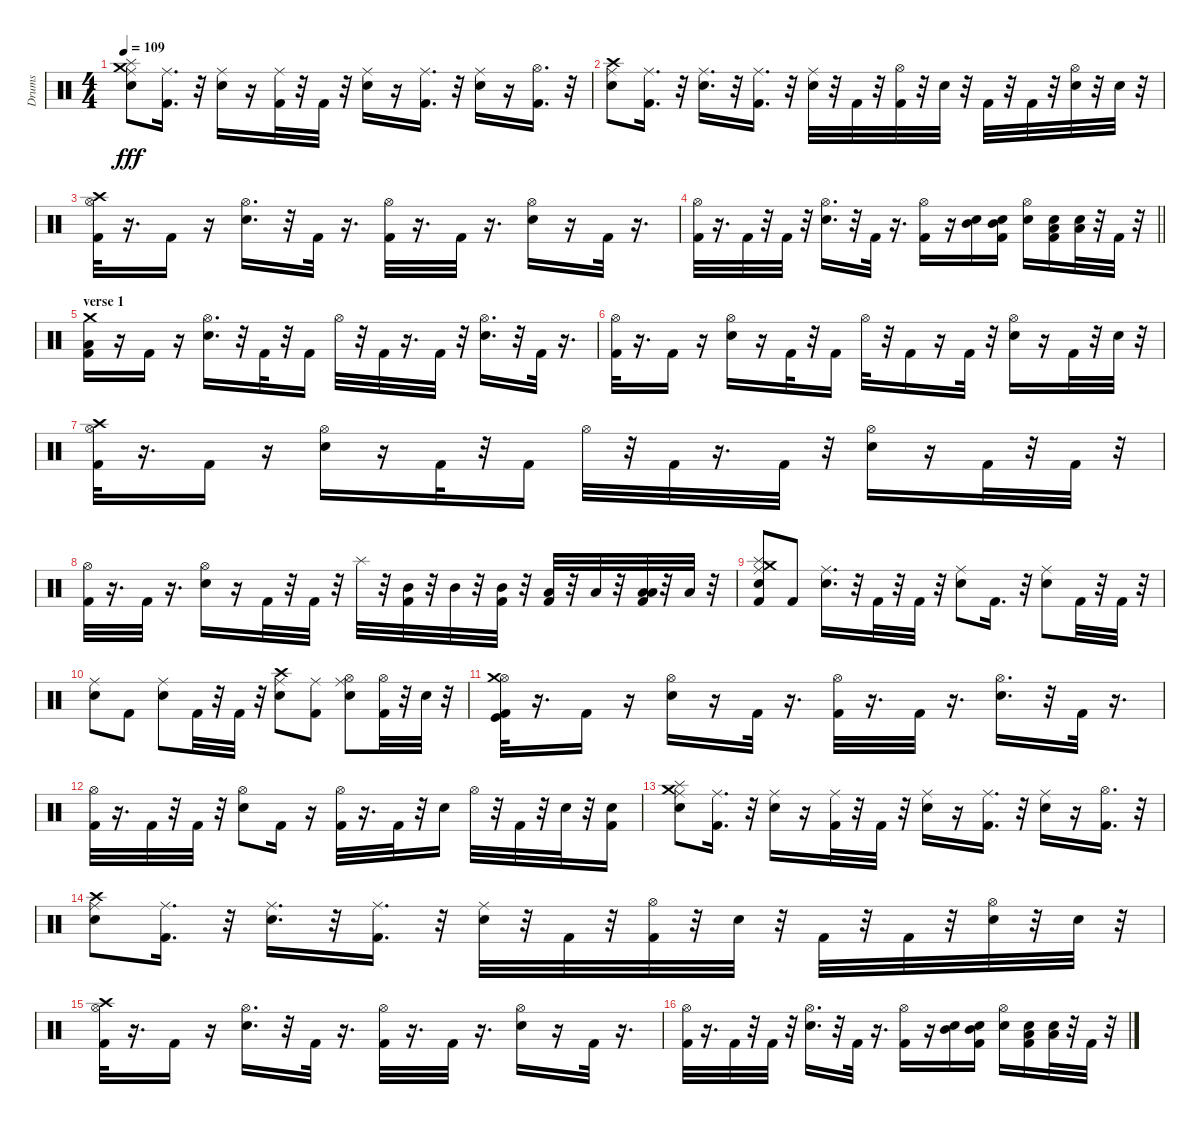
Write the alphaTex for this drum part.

\track ("Drums" "Drums") {instrument percussion}
\staff {score}
\articulation defaults
\ts (4 4)
\tempo 109
\clef neutral
\ks c
("Snare (hit) 2" "Ride (middle)" "Splash (hit)" "Crash medium (hit)").8{dy fff} ("Kick (hit) 2" "Ride (middle)").16{d} r.32 ("Snare (hit) 2" "Ride (middle)").16 r.16 ("Kick (hit) 2" "Ride (middle)").32 r.32 "Kick (hit) 2".32 r.32 ("Snare (hit) 2" "Ride (middle)").16 r.16 ("Kick (hit) 2" "Ride (middle)").16{d} r.32 ("Snare (hit) 2" "Ride (middle)").16 r.16 ("Kick (hit) 2" "Hi-Hat (open)").16{d} r.32 |
("Snare (hit) 2" "Crash high (hit)" "Ride (middle)").8 ("Kick (hit) 2" "Ride (middle)").16{d} r.32 ("Snare (hit) 2" "Ride (middle)").16{d} r.32 ("Kick (hit) 2" "Ride (middle)").16{d} r.32 ("Snare (hit) 2" "Ride (middle)").32 r.32 "Kick (hit) 2".32 r.32 ("Kick (hit) 2" "Hi-Hat (open)").32 r.32 "Snare (hit) 2".32 r.32 "Kick (hit) 2".32 r.32 "Kick (hit) 2".32 r.32 ("Snare (hit) 2" "Hi-Hat (open)").32 r.32 "Snare (hit) 2".32 r.32 |
("Kick (hit) 2" "Hi-Hat (open)" "Crash high (hit)").32 r.16{d} "Kick (hit) 2".16 r.16 ("Snare (hit) 2" "Hi-Hat (open)").16{d} r.32 "Kick (hit) 2".32 r.16{d} ("Kick (hit) 2" "Hi-Hat (open)").32 r.16{d} "Kick (hit) 2".32 r.16{d} ("Snare (hit) 2" "Hi-Hat (open)").16 r.16 "Kick (hit) 2".32 r.16{d} |
\barLineRight lightlight
("Kick (hit) 2" "Hi-Hat (open)").32 r.16{d} "Kick (hit) 2".32 r.32 "Kick (hit) 2".32 r.32 ("Snare (hit) 2" "Hi-Hat (open)").16{d} r.32 "Kick (hit) 2".32 r.16{d} ("Kick (hit) 2" "Hi-Hat (open)").16 r.16 ("Snare (hit) 2" "Mid Tom (hit)").16 ("Kick (hit) 2" "Snare (hit) 2" "Mid Tom (hit)").16 ("Snare (hit) 2" "Hi-Hat (open)").16 ("Kick (hit) 2" "Snare (hit) 2" "Low Tom (hit)").16 ("Snare (hit) 2" "Low Floor Tom (hit)").32 r.32 "Kick (hit) 2".32 r.32 |
\section ("" "verse 1")
("Kick (hit) 2" "Low Floor Tom (hit)" "Crash medium (hit)").16 r.16 "Kick (hit) 2".16 r.16 ("Snare (hit) 2" "Hi-Hat (open)").16{d} r.32 "Kick (hit) 2".32 r.32 "Kick (hit) 2".16 "Hi-Hat (open)".32 r.32 "Kick (hit) 2".32 r.16{d} "Kick (hit) 2".32 r.32 ("Snare (hit) 2" "Hi-Hat (open)").16{d} r.32 "Kick (hit) 2".32 r.16{d} |
("Kick (hit) 2" "Hi-Hat (open)").32 r.16{d} "Kick (hit) 2".16 r.16 ("Snare (hit) 2" "Hi-Hat (open)").16 r.16 "Kick (hit) 2".32 r.32 "Kick (hit) 2".16 "Hi-Hat (open)".32 r.32 "Kick (hit) 2".16 r.16 "Kick (hit) 2".32 r.32 ("Snare (hit) 2" "Hi-Hat (open)").16 r.16 "Kick (hit) 2".32 r.32 "Snare (hit) 2".32 r.32 |
("Kick (hit) 2" "Hi-Hat (open)" "Crash high (hit)").32 r.16{d} "Kick (hit) 2".16 r.16 ("Snare (hit) 2" "Hi-Hat (open)").16 r.16 "Kick (hit) 2".32 r.32 "Kick (hit) 2".16 "Hi-Hat (open)".32 r.32 "Kick (hit) 2".32 r.16{d} "Kick (hit) 2".32 r.32 ("Snare (hit) 2" "Hi-Hat (open)").16 r.16 "Kick (hit) 2".32 r.32 "Kick (hit) 2".32 r.32 |
("Kick (hit) 2" "Hi-Hat (open)").32 r.16{d} "Kick (hit) 2".32 r.16{d} ("Snare (hit) 2" "Hi-Hat (open)").16 r.16 "Kick (hit) 2".32 r.32 "Kick (hit) 2".32 r.32 "Splash (hit)".32 r.32 ("Kick (hit) 2" "Mid Tom (hit)").32 r.32 "Mid Tom (hit)".32 r.32 ("Kick (hit) 2" "Mid Tom (hit)").32 r.32 ("Kick (hit) 2" "Low Tom (hit)").32 r.32 "Low Tom (hit)".32 r.32 ("Kick (hit) 2" "Low Floor Tom (hit)" "Low Floor Tom (hit)").32 r.32 "Low Floor Tom (hit)".32 r.32 |
("Kick (hit) 2" "Snare (hit) 2" "Ride (middle)" "Splash (hit)" "Crash medium (hit)").8 "Kick (hit) 2".8 ("Snare (hit) 2" "Ride (middle)").16{d} r.32 "Kick (hit) 2".32 r.32 "Kick (hit) 2".32 r.32 ("Snare (hit) 2" "Ride (middle)").8 "Kick (hit) 2".16{d} r.32 ("Snare (hit) 2" "Ride (middle)").8 "Kick (hit) 2".32 r.32 "Kick (hit) 2".32 r.32 |
("Snare (hit) 2" "Ride (middle)").8 "Kick (hit) 2".8 ("Snare (hit) 2" "Ride (middle)").8 "Kick (hit) 2".32 r.32 "Kick (hit) 2".32 r.32 ("Snare (hit) 2" "Crash high (hit)" "Ride (middle)").8 ("Kick (hit) 2" "Ride (middle)").8 ("Snare (hit) 2" "Hi-Hat (open)" "Ride (middle)").8 ("Kick (hit) 2" "Hi-Hat (open)").32 r.32 "Snare (hit) 2".32 r.32 |
("Kick (hit)" "Kick (hit) 2" "Hi-Hat (open)" "Crash medium (hit)").32 r.16{d} "Kick (hit) 2".16 r.16 ("Snare (hit) 2" "Hi-Hat (open)").16 r.16 "Kick (hit) 2".32 r.16{d} ("Kick (hit) 2" "Hi-Hat (open)").32 r.16{d} "Kick (hit) 2".32 r.16{d} ("Snare (hit) 2" "Hi-Hat (open)").16{d} r.32 "Kick (hit) 2".32 r.16{d} |
("Kick (hit) 2" "Hi-Hat (open)").32 r.16{d} "Kick (hit) 2".32 r.32 "Kick (hit) 2".32 r.32 ("Snare (hit) 2" "Hi-Hat (open)").8 "Kick (hit) 2".16 r.16 ("Kick (hit) 2" "Hi-Hat (open)").32 r.16{d} "Kick (hit) 2".32 r.32 "Snare (hit) 2".16 "Hi-Hat (open)".32 r.32 "Kick (hit) 2".32 r.32 "Snare (hit) 2".32 r.32 ("Kick (hit) 2" "Snare (hit) 2").16 |
("Snare (hit) 2" "Ride (middle)" "Splash (hit)" "Crash medium (hit)").8 ("Kick (hit) 2" "Ride (middle)").16{d} r.32 ("Snare (hit) 2" "Ride (middle)").16 r.16 ("Kick (hit) 2" "Ride (middle)").32 r.32 "Kick (hit) 2".32 r.32 ("Snare (hit) 2" "Ride (middle)").16 r.16 ("Kick (hit) 2" "Ride (middle)").16{d} r.32 ("Snare (hit) 2" "Ride (middle)").16 r.16 ("Kick (hit) 2" "Hi-Hat (open)").16{d} r.32 |
("Snare (hit) 2" "Crash high (hit)" "Ride (middle)").8 ("Kick (hit) 2" "Ride (middle)").16{d} r.32 ("Snare (hit) 2" "Ride (middle)").16{d} r.32 ("Kick (hit) 2" "Ride (middle)").16{d} r.32 ("Snare (hit) 2" "Ride (middle)").32 r.32 "Kick (hit) 2".32 r.32 ("Kick (hit) 2" "Hi-Hat (open)").32 r.32 "Snare (hit) 2".32 r.32 "Kick (hit) 2".32 r.32 "Kick (hit) 2".32 r.32 ("Snare (hit) 2" "Hi-Hat (open)").32 r.32 "Snare (hit) 2".32 r.32 |
("Kick (hit) 2" "Hi-Hat (open)" "Crash high (hit)").32 r.16{d} "Kick (hit) 2".16 r.16 ("Snare (hit) 2" "Hi-Hat (open)").16{d} r.32 "Kick (hit) 2".32 r.16{d} ("Kick (hit) 2" "Hi-Hat (open)").32 r.16{d} "Kick (hit) 2".32 r.16{d} ("Snare (hit) 2" "Hi-Hat (open)").16 r.16 "Kick (hit) 2".32 r.16{d} |
("Kick (hit) 2" "Hi-Hat (open)").32 r.16{d} "Kick (hit) 2".32 r.32 "Kick (hit) 2".32 r.32 ("Snare (hit) 2" "Hi-Hat (open)").16{d} r.32 "Kick (hit) 2".32 r.16{d} ("Kick (hit) 2" "Hi-Hat (open)").16 r.16 ("Snare (hit) 2" "Mid Tom (hit)").16 ("Kick (hit) 2" "Snare (hit) 2" "Mid Tom (hit)").16 ("Snare (hit) 2" "Hi-Hat (open)").16 ("Kick (hit) 2" "Snare (hit) 2" "Low Tom (hit)").16 ("Snare (hit) 2" "Low Floor Tom (hit)").32 r.32 "Kick (hit) 2".32 r.32
